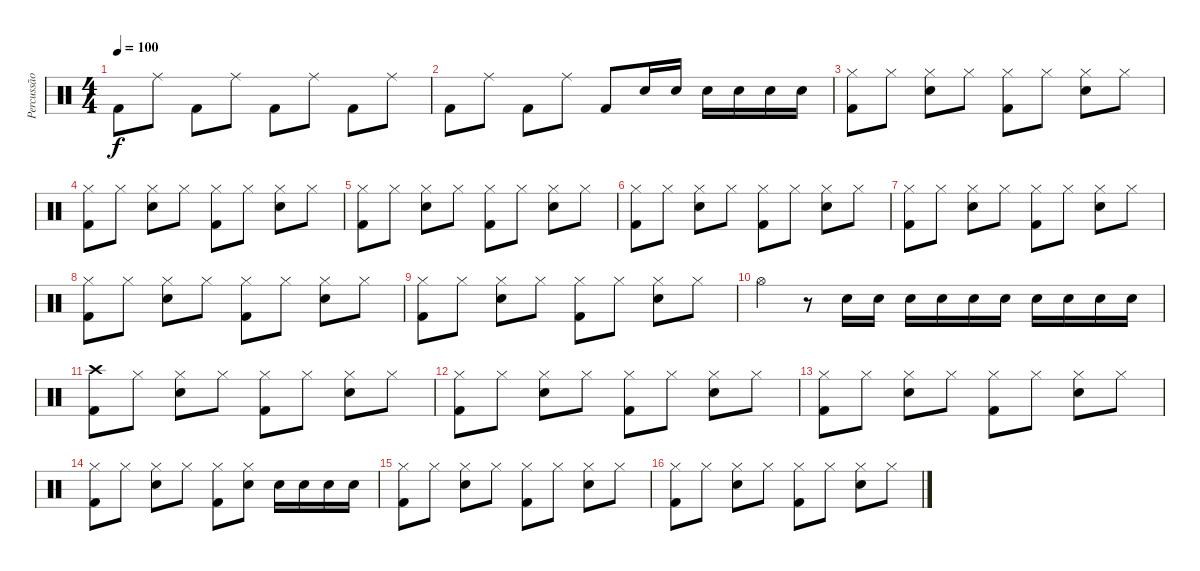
\track ("Percussão" "Percussão") {instrument percussion}
\staff {score}
\articulation defaults
\ts (4 4)
\tempo 100
\clef neutral
\ks c "Kick (hit) 2".8{dy f} "Ride (middle)".8 "Kick (hit) 2".8 "Ride (middle)".8 "Kick (hit) 2".8 "Ride (middle)".8 "Kick (hit) 2".8 "Ride (middle)".8
|
"Kick (hit) 2".8 "Ride (middle)".8 "Kick (hit) 2".8 "Ride (middle)".8 "Kick (hit) 2".8 "Snare (hit) 2".16 "Snare (hit) 2".16 "Snare (hit) 2".16 "Snare (hit) 2".16 "Snare (hit) 2".16 "Snare (hit) 2".16 |
("Hi-Hat (closed)" "Kick (hit) 2").8 "Hi-Hat (closed)".8 ("Hi-Hat (closed)" "Snare (hit) 2").8 "Hi-Hat (closed)".8 ("Hi-Hat (closed)" "Kick (hit) 2").8 "Hi-Hat (closed)".8 ("Hi-Hat (closed)" "Snare (hit) 2").8 "Hi-Hat (closed)".8 |
("Hi-Hat (closed)" "Kick (hit) 2").8 "Hi-Hat (closed)".8 ("Hi-Hat (closed)" "Snare (hit) 2").8 "Hi-Hat (closed)".8 ("Hi-Hat (closed)" "Kick (hit) 2").8 "Hi-Hat (closed)".8 ("Hi-Hat (closed)" "Snare (hit) 2").8 "Hi-Hat (closed)".8 |
("Hi-Hat (closed)" "Kick (hit) 2").8 "Hi-Hat (closed)".8 ("Hi-Hat (closed)" "Snare (hit) 2").8 "Hi-Hat (closed)".8 ("Hi-Hat (closed)" "Kick (hit) 2").8 "Hi-Hat (closed)".8 ("Hi-Hat (closed)" "Snare (hit) 2").8 "Hi-Hat (closed)".8 |
("Hi-Hat (closed)" "Kick (hit) 2").8 "Hi-Hat (closed)".8 ("Hi-Hat (closed)" "Snare (hit) 2").8 "Hi-Hat (closed)".8 ("Hi-Hat (closed)" "Kick (hit) 2").8 "Hi-Hat (closed)".8 ("Hi-Hat (closed)" "Snare (hit) 2").8 "Hi-Hat (closed)".8 |
("Hi-Hat (closed)" "Kick (hit) 2").8 "Hi-Hat (closed)".8 ("Hi-Hat (closed)" "Snare (hit) 2").8 "Hi-Hat (closed)".8 ("Hi-Hat (closed)" "Kick (hit) 2").8 "Hi-Hat (closed)".8 ("Hi-Hat (closed)" "Snare (hit) 2").8 "Hi-Hat (closed)".8 |
("Hi-Hat (closed)" "Kick (hit) 2").8 "Hi-Hat (closed)".8 ("Hi-Hat (closed)" "Snare (hit) 2").8 "Hi-Hat (closed)".8 ("Hi-Hat (closed)" "Kick (hit) 2").8 "Hi-Hat (closed)".8 ("Hi-Hat (closed)" "Snare (hit) 2").8 "Hi-Hat (closed)".8 |
("Hi-Hat (closed)" "Kick (hit) 2").8 "Hi-Hat (closed)".8 ("Hi-Hat (closed)" "Snare (hit) 2").8 "Hi-Hat (closed)".8 ("Hi-Hat (closed)" "Kick (hit) 2").8 "Hi-Hat (closed)".8 ("Hi-Hat (closed)" "Snare (hit) 2").8 "Hi-Hat (closed)".8 |
"Hi-Hat (open)".4 r.8 "Snare (hit) 2".16 "Snare (hit) 2".16 "Snare (hit) 2".16 "Snare (hit) 2".16 "Snare (hit) 2".16 "Snare (hit) 2".16 "Snare (hit) 2".16 "Snare (hit) 2".16 "Snare (hit) 2".16 "Snare (hit) 2".16 |
("Crash high (hit)" "Kick (hit) 2").8 "Hi-Hat (closed)".8 ("Hi-Hat (closed)" "Snare (hit) 2").8 "Hi-Hat (closed)".8 ("Hi-Hat (closed)" "Kick (hit) 2").8 "Hi-Hat (closed)".8 ("Hi-Hat (closed)" "Snare (hit) 2").8 "Hi-Hat (closed)".8 |
("Hi-Hat (closed)" "Kick (hit) 2").8 "Hi-Hat (closed)".8 ("Hi-Hat (closed)" "Snare (hit) 2").8 "Hi-Hat (closed)".8 ("Hi-Hat (closed)" "Kick (hit) 2").8 "Hi-Hat (closed)".8 ("Hi-Hat (closed)" "Snare (hit) 2").8 "Hi-Hat (closed)".8 |
("Hi-Hat (closed)" "Kick (hit) 2").8 "Hi-Hat (closed)".8 ("Hi-Hat (closed)" "Snare (hit) 2").8 "Hi-Hat (closed)".8 ("Hi-Hat (closed)" "Kick (hit) 2").8 "Hi-Hat (closed)".8 ("Hi-Hat (closed)" "Snare (hit) 2").8 "Hi-Hat (closed)".8 |
("Hi-Hat (closed)" "Kick (hit) 2").8 "Hi-Hat (closed)".8 ("Hi-Hat (closed)" "Snare (hit) 2").8 "Hi-Hat (closed)".8 ("Hi-Hat (closed)" "Kick (hit) 2").8 ("Hi-Hat (closed)" "Snare (hit) 2").8 "Snare (hit) 2".16 "Snare (hit) 2".16 "Snare (hit) 2".16 "Snare (hit) 2".16 |
("Hi-Hat (closed)" "Kick (hit) 2").8 "Hi-Hat (closed)".8 ("Hi-Hat (closed)" "Snare (hit) 2").8 "Hi-Hat (closed)".8 ("Hi-Hat (closed)" "Kick (hit) 2").8 "Hi-Hat (closed)".8 ("Hi-Hat (closed)" "Snare (hit) 2").8 "Hi-Hat (closed)".8 |
("Hi-Hat (closed)" "Kick (hit) 2").8 "Hi-Hat (closed)".8 ("Hi-Hat (closed)" "Snare (hit) 2").8 "Hi-Hat (closed)".8 ("Hi-Hat (closed)" "Kick (hit) 2").8 "Hi-Hat (closed)".8 ("Hi-Hat (closed)" "Snare (hit) 2").8 "Hi-Hat (closed)".8
